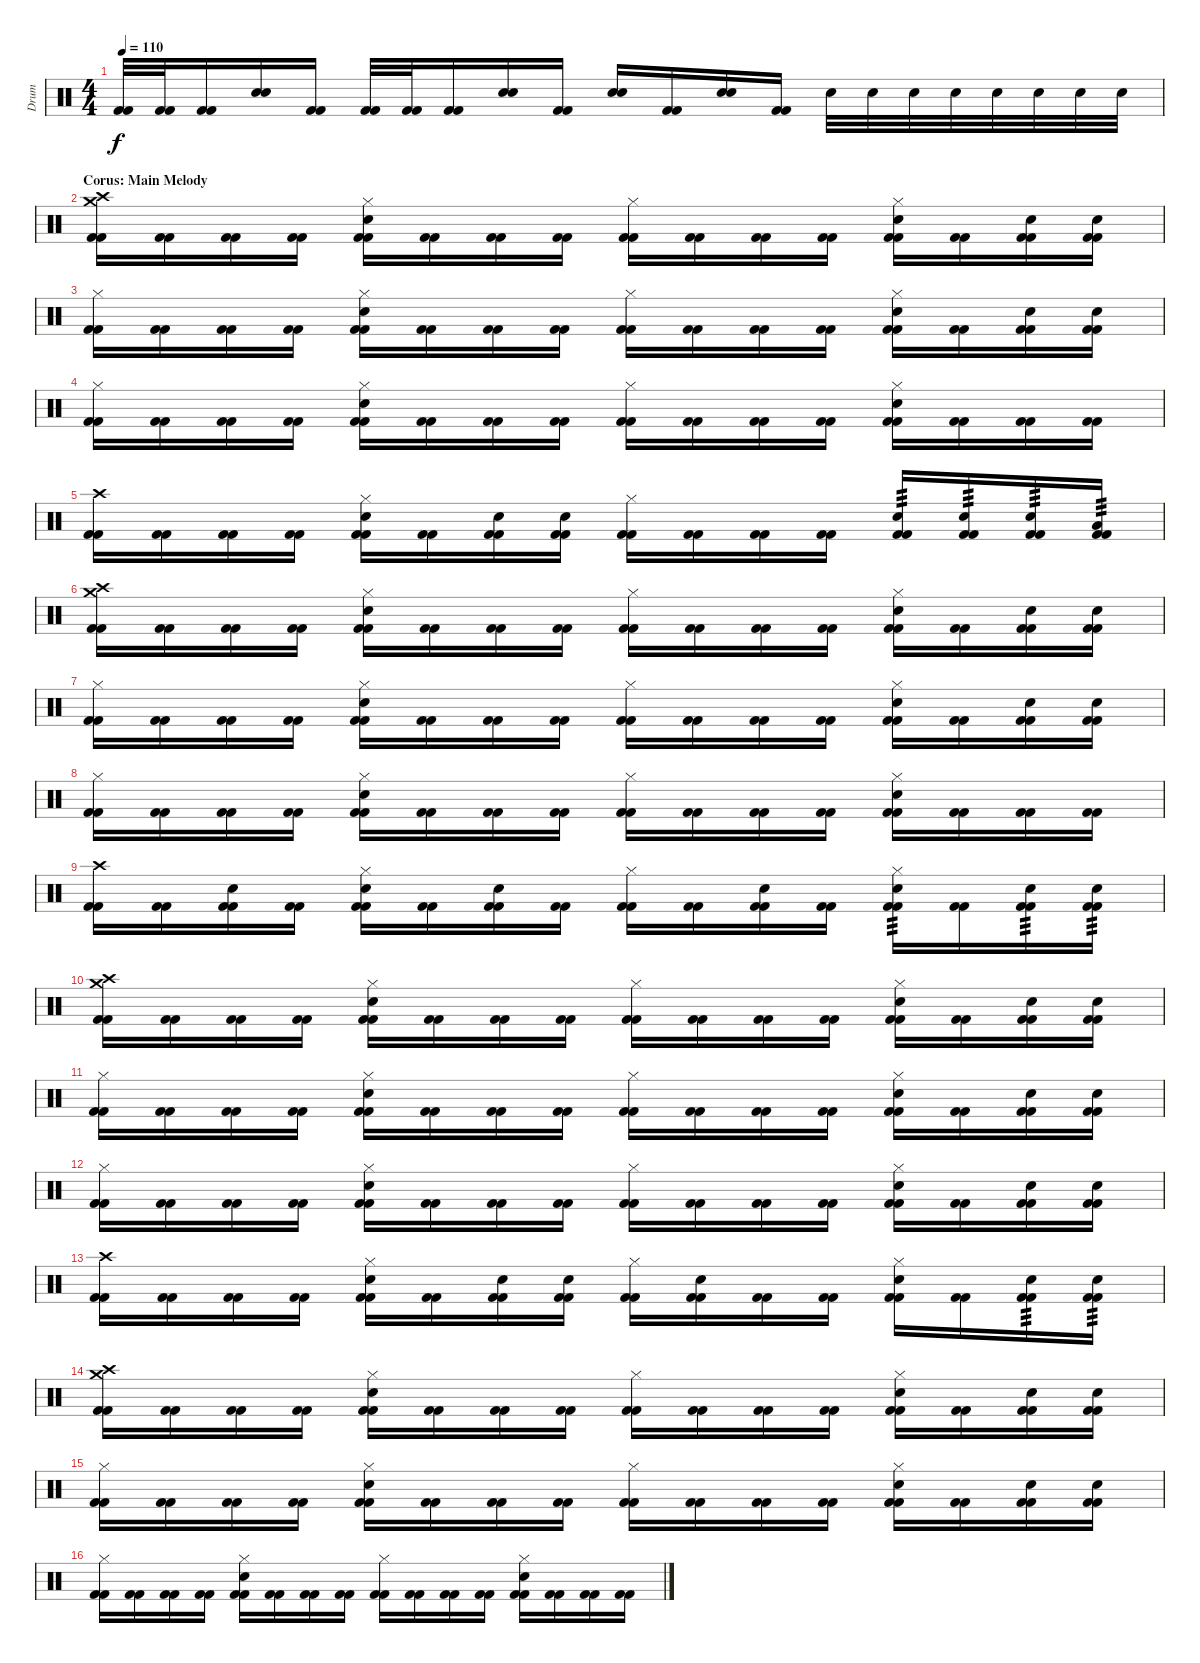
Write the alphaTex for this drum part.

\track ("Drum" "Drum") {instrument percussion}
\staff {score}
\articulation defaults
\ts (4 4)
\tempo 110
\clef neutral
\ks c
("Kick (hit) 2" "Kick (hit) 2").32{dy f} ("Kick (hit) 2" "Kick (hit) 2").32 ("Kick (hit) 2" "Kick (hit) 2").16 ("Electric Snare (hit)" "Electric Snare (hit)").16 ("Kick (hit) 2" "Kick (hit) 2").16 ("Kick (hit) 2" "Kick (hit) 2").32 ("Kick (hit) 2" "Kick (hit) 2").32 ("Kick (hit) 2" "Kick (hit) 2").16 ("Electric Snare (hit)" "Electric Snare (hit)").16 ("Kick (hit) 2" "Kick (hit) 2").16 ("Electric Snare (hit)" "Electric Snare (hit)").16 ("Kick (hit) 2" "Kick (hit) 2").16 ("Electric Snare (hit)" "Electric Snare (hit)").16 ("Kick (hit) 2" "Kick (hit) 2").16 "Electric Snare (hit)".32 "Electric Snare (hit)".32 "Electric Snare (hit)".32 "Electric Snare (hit)".32 "Electric Snare (hit)".32 "Electric Snare (hit)".32 "Electric Snare (hit)".32 "Electric Snare (hit)".32 |
\section ("" "Corus: Main Melody")
("Kick (hit) 2" "Kick (hit) 2" "Crash high (hit)" "Crash medium (hit)").16 ("Kick (hit) 2" "Kick (hit) 2").16 ("Kick (hit) 2" "Kick (hit) 2").16 ("Kick (hit) 2" "Kick (hit) 2").16 ("Kick (hit) 2" "Kick (hit) 2" "Electric Snare (hit)" "Hi-Hat (closed)").16 ("Kick (hit) 2" "Kick (hit) 2").16 ("Kick (hit) 2" "Kick (hit) 2").16 ("Kick (hit) 2" "Kick (hit) 2").16 ("Kick (hit) 2" "Kick (hit) 2" "Hi-Hat (closed)").16 ("Kick (hit) 2" "Kick (hit) 2").16 ("Kick (hit) 2" "Kick (hit) 2").16 ("Kick (hit) 2" "Kick (hit) 2").16 ("Kick (hit) 2" "Kick (hit) 2" "Electric Snare (hit)" "Hi-Hat (closed)").16 ("Kick (hit) 2" "Kick (hit) 2").16 ("Kick (hit) 2" "Kick (hit) 2" "Electric Snare (hit)").16 ("Kick (hit) 2" "Kick (hit) 2" "Electric Snare (hit)").16 |
("Kick (hit) 2" "Kick (hit) 2" "Hi-Hat (closed)").16 ("Kick (hit) 2" "Kick (hit) 2").16 ("Kick (hit) 2" "Kick (hit) 2").16 ("Kick (hit) 2" "Kick (hit) 2").16 ("Kick (hit) 2" "Kick (hit) 2" "Electric Snare (hit)" "Hi-Hat (closed)").16 ("Kick (hit) 2" "Kick (hit) 2").16 ("Kick (hit) 2" "Kick (hit) 2").16 ("Kick (hit) 2" "Kick (hit) 2").16 ("Kick (hit) 2" "Kick (hit) 2" "Hi-Hat (closed)").16 ("Kick (hit) 2" "Kick (hit) 2").16 ("Kick (hit) 2" "Kick (hit) 2").16 ("Kick (hit) 2" "Kick (hit) 2").16 ("Kick (hit) 2" "Kick (hit) 2" "Electric Snare (hit)" "Hi-Hat (closed)").16 ("Kick (hit) 2" "Kick (hit) 2").16 ("Kick (hit) 2" "Kick (hit) 2" "Electric Snare (hit)").16 ("Kick (hit) 2" "Kick (hit) 2" "Electric Snare (hit)").16 |
("Kick (hit) 2" "Kick (hit) 2" "Hi-Hat (closed)").16 ("Kick (hit) 2" "Kick (hit) 2").16 ("Kick (hit) 2" "Kick (hit) 2").16 ("Kick (hit) 2" "Kick (hit) 2").16 ("Kick (hit) 2" "Kick (hit) 2" "Electric Snare (hit)" "Hi-Hat (closed)").16 ("Kick (hit) 2" "Kick (hit) 2").16 ("Kick (hit) 2" "Kick (hit) 2").16 ("Kick (hit) 2" "Kick (hit) 2").16 ("Kick (hit) 2" "Kick (hit) 2" "Hi-Hat (closed)").16 ("Kick (hit) 2" "Kick (hit) 2").16 ("Kick (hit) 2" "Kick (hit) 2").16 ("Kick (hit) 2" "Kick (hit) 2").16 ("Kick (hit) 2" "Kick (hit) 2" "Electric Snare (hit)" "Hi-Hat (closed)").16 ("Kick (hit) 2" "Kick (hit) 2").16 ("Kick (hit) 2" "Kick (hit) 2").16 ("Kick (hit) 2" "Kick (hit) 2").16 |
("Kick (hit) 2" "Kick (hit) 2" "Crash high (hit)").16 ("Kick (hit) 2" "Kick (hit) 2").16 ("Kick (hit) 2" "Kick (hit) 2").16 ("Kick (hit) 2" "Kick (hit) 2").16 ("Kick (hit) 2" "Kick (hit) 2" "Electric Snare (hit)" "Hi-Hat (closed)").16 ("Kick (hit) 2" "Kick (hit) 2").16 ("Kick (hit) 2" "Kick (hit) 2" "Electric Snare (hit)").16 ("Kick (hit) 2" "Kick (hit) 2" "Electric Snare (hit)").16 ("Kick (hit) 2" "Kick (hit) 2" "Hi-Hat (closed)").16 ("Kick (hit) 2" "Kick (hit) 2").16 ("Kick (hit) 2" "Kick (hit) 2").16 ("Kick (hit) 2" "Kick (hit) 2").16 ("Kick (hit) 2" "Kick (hit) 2" "Electric Snare (hit)").16{tp 3} ("Kick (hit) 2" "Kick (hit) 2" "Electric Snare (hit)").16{tp 3} ("Kick (hit) 2" "Kick (hit) 2" "Electric Snare (hit)").16{tp 3} ("Kick (hit) 2" "Kick (hit) 2" "Low Floor Tom (hit)").16{tp 3} |
("Kick (hit) 2" "Kick (hit) 2" "Crash high (hit)" "Crash medium (hit)").16 ("Kick (hit) 2" "Kick (hit) 2").16 ("Kick (hit) 2" "Kick (hit) 2").16 ("Kick (hit) 2" "Kick (hit) 2").16 ("Kick (hit) 2" "Kick (hit) 2" "Electric Snare (hit)" "Hi-Hat (closed)").16 ("Kick (hit) 2" "Kick (hit) 2").16 ("Kick (hit) 2" "Kick (hit) 2").16 ("Kick (hit) 2" "Kick (hit) 2").16 ("Kick (hit) 2" "Kick (hit) 2" "Hi-Hat (closed)").16 ("Kick (hit) 2" "Kick (hit) 2").16 ("Kick (hit) 2" "Kick (hit) 2").16 ("Kick (hit) 2" "Kick (hit) 2").16 ("Kick (hit) 2" "Kick (hit) 2" "Electric Snare (hit)" "Hi-Hat (closed)").16 ("Kick (hit) 2" "Kick (hit) 2").16 ("Kick (hit) 2" "Kick (hit) 2" "Electric Snare (hit)").16 ("Kick (hit) 2" "Kick (hit) 2" "Electric Snare (hit)").16 |
("Kick (hit) 2" "Kick (hit) 2" "Hi-Hat (closed)").16 ("Kick (hit) 2" "Kick (hit) 2").16 ("Kick (hit) 2" "Kick (hit) 2").16 ("Kick (hit) 2" "Kick (hit) 2").16 ("Kick (hit) 2" "Kick (hit) 2" "Electric Snare (hit)" "Hi-Hat (closed)").16 ("Kick (hit) 2" "Kick (hit) 2").16 ("Kick (hit) 2" "Kick (hit) 2").16 ("Kick (hit) 2" "Kick (hit) 2").16 ("Kick (hit) 2" "Kick (hit) 2" "Hi-Hat (closed)").16 ("Kick (hit) 2" "Kick (hit) 2").16 ("Kick (hit) 2" "Kick (hit) 2").16 ("Kick (hit) 2" "Kick (hit) 2").16 ("Kick (hit) 2" "Kick (hit) 2" "Electric Snare (hit)" "Hi-Hat (closed)").16 ("Kick (hit) 2" "Kick (hit) 2").16 ("Kick (hit) 2" "Kick (hit) 2" "Electric Snare (hit)").16 ("Kick (hit) 2" "Kick (hit) 2" "Electric Snare (hit)").16 |
("Kick (hit) 2" "Kick (hit) 2" "Hi-Hat (closed)").16 ("Kick (hit) 2" "Kick (hit) 2").16 ("Kick (hit) 2" "Kick (hit) 2").16 ("Kick (hit) 2" "Kick (hit) 2").16 ("Kick (hit) 2" "Kick (hit) 2" "Electric Snare (hit)" "Hi-Hat (closed)").16 ("Kick (hit) 2" "Kick (hit) 2").16 ("Kick (hit) 2" "Kick (hit) 2").16 ("Kick (hit) 2" "Kick (hit) 2").16 ("Kick (hit) 2" "Kick (hit) 2" "Hi-Hat (closed)").16 ("Kick (hit) 2" "Kick (hit) 2").16 ("Kick (hit) 2" "Kick (hit) 2").16 ("Kick (hit) 2" "Kick (hit) 2").16 ("Kick (hit) 2" "Kick (hit) 2" "Electric Snare (hit)" "Hi-Hat (closed)").16 ("Kick (hit) 2" "Kick (hit) 2").16 ("Kick (hit) 2" "Kick (hit) 2").16 ("Kick (hit) 2" "Kick (hit) 2").16 |
("Kick (hit) 2" "Kick (hit) 2" "Crash high (hit)").16 ("Kick (hit) 2" "Kick (hit) 2").16 ("Kick (hit) 2" "Kick (hit) 2" "Electric Snare (hit)").16 ("Kick (hit) 2" "Kick (hit) 2").16 ("Kick (hit) 2" "Kick (hit) 2" "Electric Snare (hit)" "Hi-Hat (closed)").16 ("Kick (hit) 2" "Kick (hit) 2").16 ("Kick (hit) 2" "Kick (hit) 2" "Electric Snare (hit)").16 ("Kick (hit) 2" "Kick (hit) 2").16 ("Kick (hit) 2" "Kick (hit) 2" "Hi-Hat (closed)").16 ("Kick (hit) 2" "Kick (hit) 2").16 ("Kick (hit) 2" "Kick (hit) 2" "Electric Snare (hit)").16 ("Kick (hit) 2" "Kick (hit) 2").16 ("Kick (hit) 2" "Kick (hit) 2" "Electric Snare (hit)" "Hi-Hat (closed)").16{tp 3} ("Kick (hit) 2" "Kick (hit) 2").16 ("Kick (hit) 2" "Kick (hit) 2" "Electric Snare (hit)").16{tp 3} ("Kick (hit) 2" "Kick (hit) 2" "Electric Snare (hit)").16{tp 3} |
("Kick (hit) 2" "Kick (hit) 2" "Crash high (hit)" "Crash medium (hit)").16 ("Kick (hit) 2" "Kick (hit) 2").16 ("Kick (hit) 2" "Kick (hit) 2").16 ("Kick (hit) 2" "Kick (hit) 2").16 ("Kick (hit) 2" "Kick (hit) 2" "Electric Snare (hit)" "Hi-Hat (closed)").16 ("Kick (hit) 2" "Kick (hit) 2").16 ("Kick (hit) 2" "Kick (hit) 2").16 ("Kick (hit) 2" "Kick (hit) 2").16 ("Kick (hit) 2" "Kick (hit) 2" "Hi-Hat (closed)").16 ("Kick (hit) 2" "Kick (hit) 2").16 ("Kick (hit) 2" "Kick (hit) 2").16 ("Kick (hit) 2" "Kick (hit) 2").16 ("Kick (hit) 2" "Kick (hit) 2" "Electric Snare (hit)" "Hi-Hat (closed)").16 ("Kick (hit) 2" "Kick (hit) 2").16 ("Kick (hit) 2" "Kick (hit) 2" "Electric Snare (hit)").16 ("Kick (hit) 2" "Kick (hit) 2" "Electric Snare (hit)").16 |
("Kick (hit) 2" "Kick (hit) 2" "Hi-Hat (closed)").16 ("Kick (hit) 2" "Kick (hit) 2").16 ("Kick (hit) 2" "Kick (hit) 2").16 ("Kick (hit) 2" "Kick (hit) 2").16 ("Kick (hit) 2" "Kick (hit) 2" "Electric Snare (hit)" "Hi-Hat (closed)").16 ("Kick (hit) 2" "Kick (hit) 2").16 ("Kick (hit) 2" "Kick (hit) 2").16 ("Kick (hit) 2" "Kick (hit) 2").16 ("Kick (hit) 2" "Kick (hit) 2" "Hi-Hat (closed)").16 ("Kick (hit) 2" "Kick (hit) 2").16 ("Kick (hit) 2" "Kick (hit) 2").16 ("Kick (hit) 2" "Kick (hit) 2").16 ("Kick (hit) 2" "Kick (hit) 2" "Electric Snare (hit)" "Hi-Hat (closed)").16 ("Kick (hit) 2" "Kick (hit) 2").16 ("Kick (hit) 2" "Kick (hit) 2" "Electric Snare (hit)").16 ("Kick (hit) 2" "Kick (hit) 2" "Electric Snare (hit)").16 |
("Kick (hit) 2" "Kick (hit) 2" "Hi-Hat (closed)").16 ("Kick (hit) 2" "Kick (hit) 2").16 ("Kick (hit) 2" "Kick (hit) 2").16 ("Kick (hit) 2" "Kick (hit) 2").16 ("Kick (hit) 2" "Kick (hit) 2" "Electric Snare (hit)" "Hi-Hat (closed)").16 ("Kick (hit) 2" "Kick (hit) 2").16 ("Kick (hit) 2" "Kick (hit) 2").16 ("Kick (hit) 2" "Kick (hit) 2").16 ("Kick (hit) 2" "Kick (hit) 2" "Hi-Hat (closed)").16 ("Kick (hit) 2" "Kick (hit) 2").16 ("Kick (hit) 2" "Kick (hit) 2").16 ("Kick (hit) 2" "Kick (hit) 2").16 ("Kick (hit) 2" "Kick (hit) 2" "Electric Snare (hit)" "Hi-Hat (closed)").16 ("Kick (hit) 2" "Kick (hit) 2").16 ("Kick (hit) 2" "Kick (hit) 2" "Electric Snare (hit)").16 ("Kick (hit) 2" "Kick (hit) 2" "Electric Snare (hit)").16 |
("Kick (hit) 2" "Kick (hit) 2" "Crash high (hit)").16 ("Kick (hit) 2" "Kick (hit) 2").16 ("Kick (hit) 2" "Kick (hit) 2").16 ("Kick (hit) 2" "Kick (hit) 2").16 ("Kick (hit) 2" "Kick (hit) 2" "Electric Snare (hit)" "Hi-Hat (closed)").16 ("Kick (hit) 2" "Kick (hit) 2").16 ("Kick (hit) 2" "Kick (hit) 2" "Electric Snare (hit)").16 ("Kick (hit) 2" "Kick (hit) 2" "Electric Snare (hit)").16 ("Kick (hit) 2" "Kick (hit) 2" "Hi-Hat (closed)").16 ("Kick (hit) 2" "Kick (hit) 2" "Electric Snare (hit)").16 ("Kick (hit) 2" "Kick (hit) 2").16 ("Kick (hit) 2" "Kick (hit) 2").16 ("Kick (hit) 2" "Kick (hit) 2" "Electric Snare (hit)" "Hi-Hat (closed)").16 ("Kick (hit) 2" "Kick (hit) 2").16 ("Kick (hit) 2" "Kick (hit) 2" "Electric Snare (hit)").16{tp 3} ("Kick (hit) 2" "Kick (hit) 2" "Electric Snare (hit)").16{tp 3} |
("Kick (hit) 2" "Kick (hit) 2" "Crash high (hit)" "Crash medium (hit)").16 ("Kick (hit) 2" "Kick (hit) 2").16 ("Kick (hit) 2" "Kick (hit) 2").16 ("Kick (hit) 2" "Kick (hit) 2").16 ("Kick (hit) 2" "Kick (hit) 2" "Electric Snare (hit)" "Hi-Hat (closed)").16 ("Kick (hit) 2" "Kick (hit) 2").16 ("Kick (hit) 2" "Kick (hit) 2").16 ("Kick (hit) 2" "Kick (hit) 2").16 ("Kick (hit) 2" "Kick (hit) 2" "Hi-Hat (closed)").16 ("Kick (hit) 2" "Kick (hit) 2").16 ("Kick (hit) 2" "Kick (hit) 2").16 ("Kick (hit) 2" "Kick (hit) 2").16 ("Kick (hit) 2" "Kick (hit) 2" "Electric Snare (hit)" "Hi-Hat (closed)").16 ("Kick (hit) 2" "Kick (hit) 2").16 ("Kick (hit) 2" "Kick (hit) 2" "Electric Snare (hit)").16 ("Kick (hit) 2" "Kick (hit) 2" "Electric Snare (hit)").16 |
("Kick (hit) 2" "Kick (hit) 2" "Hi-Hat (closed)").16 ("Kick (hit) 2" "Kick (hit) 2").16 ("Kick (hit) 2" "Kick (hit) 2").16 ("Kick (hit) 2" "Kick (hit) 2").16 ("Kick (hit) 2" "Kick (hit) 2" "Electric Snare (hit)" "Hi-Hat (closed)").16 ("Kick (hit) 2" "Kick (hit) 2").16 ("Kick (hit) 2" "Kick (hit) 2").16 ("Kick (hit) 2" "Kick (hit) 2").16 ("Kick (hit) 2" "Kick (hit) 2" "Hi-Hat (closed)").16 ("Kick (hit) 2" "Kick (hit) 2").16 ("Kick (hit) 2" "Kick (hit) 2").16 ("Kick (hit) 2" "Kick (hit) 2").16 ("Kick (hit) 2" "Kick (hit) 2" "Electric Snare (hit)" "Hi-Hat (closed)").16 ("Kick (hit) 2" "Kick (hit) 2").16 ("Kick (hit) 2" "Kick (hit) 2" "Electric Snare (hit)").16 ("Kick (hit) 2" "Kick (hit) 2" "Electric Snare (hit)").16 |
("Kick (hit) 2" "Kick (hit) 2" "Hi-Hat (closed)").16 ("Kick (hit) 2" "Kick (hit) 2").16 ("Kick (hit) 2" "Kick (hit) 2").16 ("Kick (hit) 2" "Kick (hit) 2").16 ("Kick (hit) 2" "Kick (hit) 2" "Electric Snare (hit)" "Hi-Hat (closed)").16 ("Kick (hit) 2" "Kick (hit) 2").16 ("Kick (hit) 2" "Kick (hit) 2").16 ("Kick (hit) 2" "Kick (hit) 2").16 ("Kick (hit) 2" "Kick (hit) 2" "Hi-Hat (closed)").16 ("Kick (hit) 2" "Kick (hit) 2").16 ("Kick (hit) 2" "Kick (hit) 2").16 ("Kick (hit) 2" "Kick (hit) 2").16 ("Kick (hit) 2" "Kick (hit) 2" "Electric Snare (hit)" "Hi-Hat (closed)").16 ("Kick (hit) 2" "Kick (hit) 2").16 ("Kick (hit) 2" "Kick (hit) 2").16 ("Kick (hit) 2" "Kick (hit) 2").16
